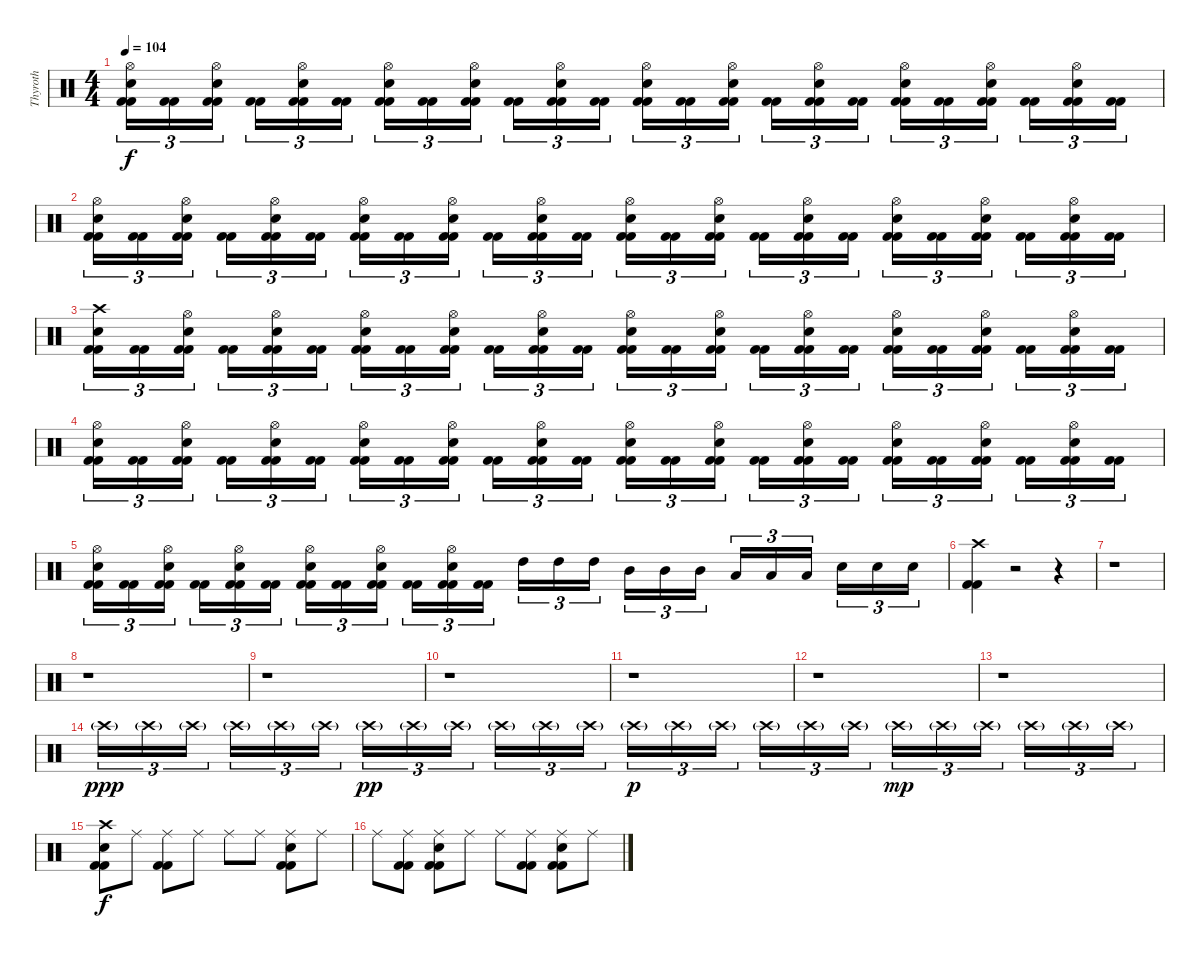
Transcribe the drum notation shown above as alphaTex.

\track ("Thyroth" "Thyroth") {instrument percussion}
\staff {score}
\articulation defaults
\ts (4 4)
\tempo 104
\clef neutral
\ks c
("Kick (hit) 2" "Kick (hit) 2" "Snare (hit) 2" "Hi-Hat (open)").16{tu (3 2) dy f} ("Kick (hit) 2" "Kick (hit) 2").16{tu (3 2)} ("Kick (hit) 2" "Kick (hit) 2" "Snare (hit) 2" "Hi-Hat (open)").16{tu (3 2)} ("Kick (hit) 2" "Kick (hit) 2").16{tu (3 2)} ("Kick (hit) 2" "Kick (hit) 2" "Snare (hit) 2" "Hi-Hat (open)").16{tu (3 2)} ("Kick (hit) 2" "Kick (hit) 2").16{tu (3 2)} ("Kick (hit) 2" "Kick (hit) 2" "Snare (hit) 2" "Hi-Hat (open)").16{tu (3 2)} ("Kick (hit) 2" "Kick (hit) 2").16{tu (3 2)} ("Kick (hit) 2" "Kick (hit) 2" "Snare (hit) 2" "Hi-Hat (open)").16{tu (3 2)} ("Kick (hit) 2" "Kick (hit) 2").16{tu (3 2)} ("Kick (hit) 2" "Kick (hit) 2" "Snare (hit) 2" "Hi-Hat (open)").16{tu (3 2)} ("Kick (hit) 2" "Kick (hit) 2").16{tu (3 2)} ("Kick (hit) 2" "Kick (hit) 2" "Snare (hit) 2" "Hi-Hat (open)").16{tu (3 2)} ("Kick (hit) 2" "Kick (hit) 2").16{tu (3 2)} ("Kick (hit) 2" "Kick (hit) 2" "Snare (hit) 2" "Hi-Hat (open)").16{tu (3 2)} ("Kick (hit) 2" "Kick (hit) 2").16{tu (3 2)} ("Kick (hit) 2" "Kick (hit) 2" "Snare (hit) 2" "Hi-Hat (open)").16{tu (3 2)} ("Kick (hit) 2" "Kick (hit) 2").16{tu (3 2)} ("Kick (hit) 2" "Kick (hit) 2" "Snare (hit) 2" "Hi-Hat (open)").16{tu (3 2)} ("Kick (hit) 2" "Kick (hit) 2").16{tu (3 2)} ("Kick (hit) 2" "Kick (hit) 2" "Snare (hit) 2" "Hi-Hat (open)").16{tu (3 2)} ("Kick (hit) 2" "Kick (hit) 2").16{tu (3 2)} ("Kick (hit) 2" "Kick (hit) 2" "Snare (hit) 2" "Hi-Hat (open)").16{tu (3 2)} ("Kick (hit) 2" "Kick (hit) 2").16{tu (3 2)} |
("Kick (hit) 2" "Kick (hit) 2" "Snare (hit) 2" "Hi-Hat (open)").16{tu (3 2)} ("Kick (hit) 2" "Kick (hit) 2").16{tu (3 2)} ("Kick (hit) 2" "Kick (hit) 2" "Snare (hit) 2" "Hi-Hat (open)").16{tu (3 2)} ("Kick (hit) 2" "Kick (hit) 2").16{tu (3 2)} ("Kick (hit) 2" "Kick (hit) 2" "Snare (hit) 2" "Hi-Hat (open)").16{tu (3 2)} ("Kick (hit) 2" "Kick (hit) 2").16{tu (3 2)} ("Kick (hit) 2" "Kick (hit) 2" "Snare (hit) 2" "Hi-Hat (open)").16{tu (3 2)} ("Kick (hit) 2" "Kick (hit) 2").16{tu (3 2)} ("Kick (hit) 2" "Kick (hit) 2" "Snare (hit) 2" "Hi-Hat (open)").16{tu (3 2)} ("Kick (hit) 2" "Kick (hit) 2").16{tu (3 2)} ("Kick (hit) 2" "Kick (hit) 2" "Snare (hit) 2" "Hi-Hat (open)").16{tu (3 2)} ("Kick (hit) 2" "Kick (hit) 2").16{tu (3 2)} ("Kick (hit) 2" "Kick (hit) 2" "Snare (hit) 2" "Hi-Hat (open)").16{tu (3 2)} ("Kick (hit) 2" "Kick (hit) 2").16{tu (3 2)} ("Kick (hit) 2" "Kick (hit) 2" "Snare (hit) 2" "Hi-Hat (open)").16{tu (3 2)} ("Kick (hit) 2" "Kick (hit) 2").16{tu (3 2)} ("Kick (hit) 2" "Kick (hit) 2" "Snare (hit) 2" "Hi-Hat (open)").16{tu (3 2)} ("Kick (hit) 2" "Kick (hit) 2").16{tu (3 2)} ("Kick (hit) 2" "Kick (hit) 2" "Snare (hit) 2" "Hi-Hat (open)").16{tu (3 2)} ("Kick (hit) 2" "Kick (hit) 2").16{tu (3 2)} ("Kick (hit) 2" "Kick (hit) 2" "Snare (hit) 2" "Hi-Hat (open)").16{tu (3 2)} ("Kick (hit) 2" "Kick (hit) 2").16{tu (3 2)} ("Kick (hit) 2" "Kick (hit) 2" "Snare (hit) 2" "Hi-Hat (open)").16{tu (3 2)} ("Kick (hit) 2" "Kick (hit) 2").16{tu (3 2)} |
("Kick (hit) 2" "Kick (hit) 2" "Snare (hit) 2" "Crash high (hit)").16{tu (3 2)} ("Kick (hit) 2" "Kick (hit) 2").16{tu (3 2)} ("Kick (hit) 2" "Kick (hit) 2" "Snare (hit) 2" "Hi-Hat (open)").16{tu (3 2)} ("Kick (hit) 2" "Kick (hit) 2").16{tu (3 2)} ("Kick (hit) 2" "Kick (hit) 2" "Snare (hit) 2" "Hi-Hat (open)").16{tu (3 2)} ("Kick (hit) 2" "Kick (hit) 2").16{tu (3 2)} ("Kick (hit) 2" "Kick (hit) 2" "Snare (hit) 2" "Hi-Hat (open)").16{tu (3 2)} ("Kick (hit) 2" "Kick (hit) 2").16{tu (3 2)} ("Kick (hit) 2" "Kick (hit) 2" "Snare (hit) 2" "Hi-Hat (open)").16{tu (3 2)} ("Kick (hit) 2" "Kick (hit) 2").16{tu (3 2)} ("Kick (hit) 2" "Kick (hit) 2" "Snare (hit) 2" "Hi-Hat (open)").16{tu (3 2)} ("Kick (hit) 2" "Kick (hit) 2").16{tu (3 2)} ("Kick (hit) 2" "Kick (hit) 2" "Snare (hit) 2" "Hi-Hat (open)").16{tu (3 2)} ("Kick (hit) 2" "Kick (hit) 2").16{tu (3 2)} ("Kick (hit) 2" "Kick (hit) 2" "Snare (hit) 2" "Hi-Hat (open)").16{tu (3 2)} ("Kick (hit) 2" "Kick (hit) 2").16{tu (3 2)} ("Kick (hit) 2" "Kick (hit) 2" "Snare (hit) 2" "Hi-Hat (open)").16{tu (3 2)} ("Kick (hit) 2" "Kick (hit) 2").16{tu (3 2)} ("Kick (hit) 2" "Kick (hit) 2" "Snare (hit) 2" "Hi-Hat (open)").16{tu (3 2)} ("Kick (hit) 2" "Kick (hit) 2").16{tu (3 2)} ("Kick (hit) 2" "Kick (hit) 2" "Snare (hit) 2" "Hi-Hat (open)").16{tu (3 2)} ("Kick (hit) 2" "Kick (hit) 2").16{tu (3 2)} ("Kick (hit) 2" "Kick (hit) 2" "Snare (hit) 2" "Hi-Hat (open)").16{tu (3 2)} ("Kick (hit) 2" "Kick (hit) 2").16{tu (3 2)} |
("Kick (hit) 2" "Kick (hit) 2" "Snare (hit) 2" "Hi-Hat (open)").16{tu (3 2)} ("Kick (hit) 2" "Kick (hit) 2").16{tu (3 2)} ("Kick (hit) 2" "Kick (hit) 2" "Snare (hit) 2" "Hi-Hat (open)").16{tu (3 2)} ("Kick (hit) 2" "Kick (hit) 2").16{tu (3 2)} ("Kick (hit) 2" "Kick (hit) 2" "Snare (hit) 2" "Hi-Hat (open)").16{tu (3 2)} ("Kick (hit) 2" "Kick (hit) 2").16{tu (3 2)} ("Kick (hit) 2" "Kick (hit) 2" "Snare (hit) 2" "Hi-Hat (open)").16{tu (3 2)} ("Kick (hit) 2" "Kick (hit) 2").16{tu (3 2)} ("Kick (hit) 2" "Kick (hit) 2" "Snare (hit) 2" "Hi-Hat (open)").16{tu (3 2)} ("Kick (hit) 2" "Kick (hit) 2").16{tu (3 2)} ("Kick (hit) 2" "Kick (hit) 2" "Snare (hit) 2" "Hi-Hat (open)").16{tu (3 2)} ("Kick (hit) 2" "Kick (hit) 2").16{tu (3 2)} ("Kick (hit) 2" "Kick (hit) 2" "Snare (hit) 2" "Hi-Hat (open)").16{tu (3 2)} ("Kick (hit) 2" "Kick (hit) 2").16{tu (3 2)} ("Kick (hit) 2" "Kick (hit) 2" "Snare (hit) 2" "Hi-Hat (open)").16{tu (3 2)} ("Kick (hit) 2" "Kick (hit) 2").16{tu (3 2)} ("Kick (hit) 2" "Kick (hit) 2" "Snare (hit) 2" "Hi-Hat (open)").16{tu (3 2)} ("Kick (hit) 2" "Kick (hit) 2").16{tu (3 2)} ("Kick (hit) 2" "Kick (hit) 2" "Snare (hit) 2" "Hi-Hat (open)").16{tu (3 2)} ("Kick (hit) 2" "Kick (hit) 2").16{tu (3 2)} ("Kick (hit) 2" "Kick (hit) 2" "Snare (hit) 2" "Hi-Hat (open)").16{tu (3 2)} ("Kick (hit) 2" "Kick (hit) 2").16{tu (3 2)} ("Kick (hit) 2" "Kick (hit) 2" "Snare (hit) 2" "Hi-Hat (open)").16{tu (3 2)} ("Kick (hit) 2" "Kick (hit) 2").16{tu (3 2)} |
("Kick (hit) 2" "Kick (hit) 2" "Snare (hit) 2" "Hi-Hat (open)").16{tu (3 2)} ("Kick (hit) 2" "Kick (hit) 2").16{tu (3 2)} ("Kick (hit) 2" "Kick (hit) 2" "Snare (hit) 2" "Hi-Hat (open)").16{tu (3 2)} ("Kick (hit) 2" "Kick (hit) 2").16{tu (3 2)} ("Kick (hit) 2" "Kick (hit) 2" "Snare (hit) 2" "Hi-Hat (open)").16{tu (3 2)} ("Kick (hit) 2" "Kick (hit) 2").16{tu (3 2)} ("Kick (hit) 2" "Kick (hit) 2" "Snare (hit) 2" "Hi-Hat (open)").16{tu (3 2)} ("Kick (hit) 2" "Kick (hit) 2").16{tu (3 2)} ("Kick (hit) 2" "Kick (hit) 2" "Snare (hit) 2" "Hi-Hat (open)").16{tu (3 2)} ("Kick (hit) 2" "Kick (hit) 2").16{tu (3 2)} ("Kick (hit) 2" "Kick (hit) 2" "Snare (hit) 2" "Hi-Hat (open)").16{tu (3 2)} ("Kick (hit) 2" "Kick (hit) 2").16{tu (3 2)} "High Tom (hit)".16{tu (3 2)} "High Tom (hit)".16{tu (3 2)} "High Tom (hit)".16{tu (3 2)} "Mid Tom (hit)".16{tu (3 2)} "Mid Tom (hit)".16{tu (3 2)} "Mid Tom (hit)".16{tu (3 2)} "Low Tom (hit)".16{tu (3 2)} "Low Tom (hit)".16{tu (3 2)} "Low Tom (hit)".16{tu (3 2)} "Snare (hit) 2".16{tu (3 2)} "Snare (hit) 2".16{tu (3 2)} "Snare (hit) 2".16{tu (3 2)} |
("Kick (hit) 2" "Kick (hit) 2" "Crash high (hit)").4 r.2 r.4 |
r.1 |
r.1 |
r.1 |
r.1 |
r.1 |
r.1 |
r.1 |
"Crash high (hit)"{g}.16{tu (3 2) dy ppp} "Crash high (hit)"{g}.16{tu (3 2)} "Crash high (hit)"{g}.16{tu (3 2)} "Crash high (hit)"{g}.16{tu (3 2)} "Crash high (hit)"{g}.16{tu (3 2)} "Crash high (hit)"{g}.16{tu (3 2)} "Crash high (hit)"{g}.16{tu (3 2) dy pp} "Crash high (hit)"{g}.16{tu (3 2)} "Crash high (hit)"{g}.16{tu (3 2)} "Crash high (hit)"{g}.16{tu (3 2)} "Crash high (hit)"{g}.16{tu (3 2)} "Crash high (hit)"{g}.16{tu (3 2)} "Crash high (hit)"{g}.16{tu (3 2) dy p} "Crash high (hit)"{g}.16{tu (3 2)} "Crash high (hit)"{g}.16{tu (3 2)} "Crash high (hit)"{g}.16{tu (3 2)} "Crash high (hit)"{g}.16{tu (3 2)} "Crash high (hit)"{g}.16{tu (3 2)} "Crash high (hit)"{g}.16{tu (3 2) dy mp} "Crash high (hit)"{g}.16{tu (3 2)} "Crash high (hit)"{g}.16{tu (3 2)} "Crash high (hit)"{g}.16{tu (3 2)} "Crash high (hit)"{g}.16{tu (3 2)} "Crash high (hit)"{g}.16{tu (3 2)} |
("Kick (hit) 2" "Kick (hit) 2" "Snare (hit) 2" "Crash high (hit)").8{dy f} "Ride (middle)".8 ("Kick (hit) 2" "Kick (hit) 2" "Ride (middle)").8 "Ride (middle)".8 "Ride (middle)".8 "Ride (middle)".8 ("Kick (hit) 2" "Kick (hit) 2" "Snare (hit) 2" "Ride (middle)").8 "Ride (middle)".8 |
"Ride (middle)".8 ("Kick (hit) 2" "Kick (hit) 2" "Ride (middle)").8 ("Kick (hit) 2" "Kick (hit) 2" "Snare (hit) 2" "Ride (middle)").8 "Ride (middle)".8 "Ride (middle)".8 ("Kick (hit) 2" "Kick (hit) 2" "Ride (middle)").8 ("Kick (hit) 2" "Kick (hit) 2" "Snare (hit) 2" "Ride (middle)").8 "Ride (middle)".8
